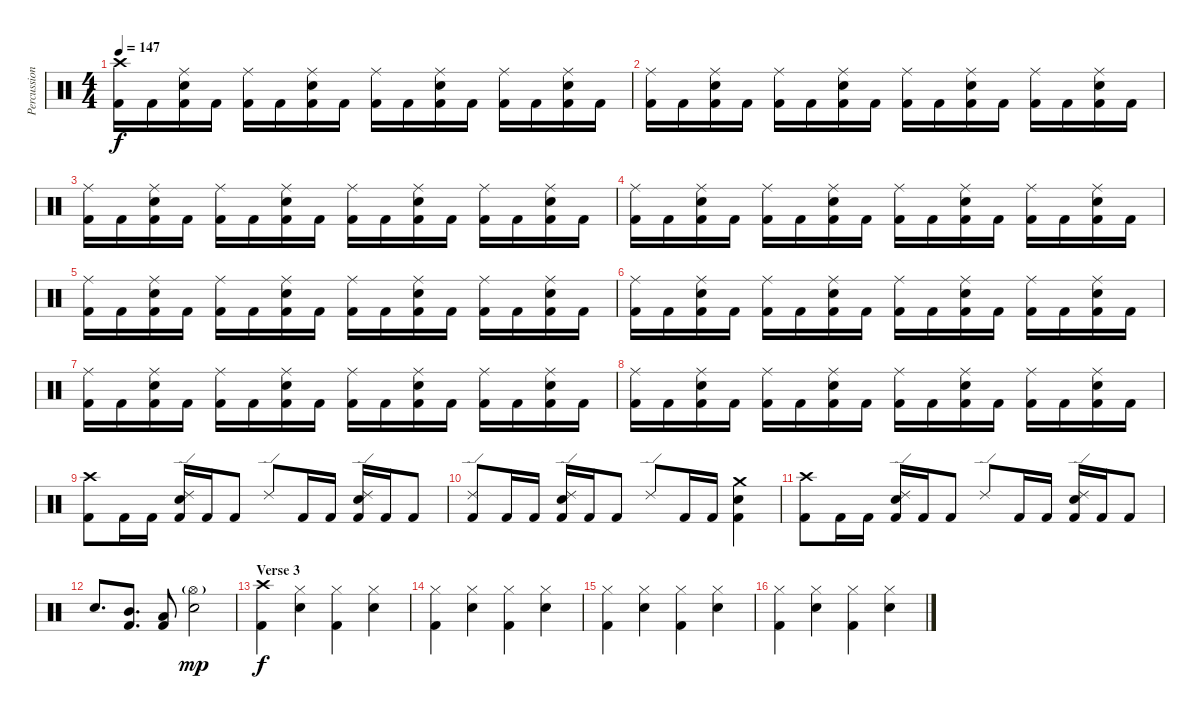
\track ("Percussion" "Percussion") {instrument percussion}
\staff {score}
\articulation defaults
\ts (4 4)
\tempo 147
\clef neutral
\ks c
("Kick (hit) 2" "Crash high (hit)").16{dy f} "Kick (hit) 2".16 ("Kick (hit) 2" "Snare (hit) 2" "Ride (middle)").16 "Kick (hit) 2".16 ("Kick (hit) 2" "Ride (middle)").16 "Kick (hit) 2".16 ("Kick (hit) 2" "Snare (hit) 2" "Ride (middle)").16 "Kick (hit) 2".16 ("Kick (hit) 2" "Ride (middle)").16 "Kick (hit) 2".16 ("Kick (hit) 2" "Snare (hit) 2" "Ride (middle)").16 "Kick (hit) 2".16 ("Kick (hit) 2" "Ride (middle)").16 "Kick (hit) 2".16 ("Kick (hit) 2" "Snare (hit) 2" "Ride (middle)").16 "Kick (hit) 2".16 |
("Kick (hit) 2" "Ride (middle)").16 "Kick (hit) 2".16 ("Kick (hit) 2" "Snare (hit) 2" "Ride (middle)").16 "Kick (hit) 2".16 ("Kick (hit) 2" "Ride (middle)").16 "Kick (hit) 2".16 ("Kick (hit) 2" "Snare (hit) 2" "Ride (middle)").16 "Kick (hit) 2".16 ("Kick (hit) 2" "Ride (middle)").16 "Kick (hit) 2".16 ("Kick (hit) 2" "Snare (hit) 2" "Ride (middle)").16 "Kick (hit) 2".16 ("Kick (hit) 2" "Ride (middle)").16 "Kick (hit) 2".16 ("Kick (hit) 2" "Snare (hit) 2" "Ride (middle)").16 "Kick (hit) 2".16 |
("Kick (hit) 2" "Ride (middle)").16 "Kick (hit) 2".16 ("Kick (hit) 2" "Snare (hit) 2" "Ride (middle)").16 "Kick (hit) 2".16 ("Kick (hit) 2" "Ride (middle)").16 "Kick (hit) 2".16 ("Kick (hit) 2" "Snare (hit) 2" "Ride (middle)").16 "Kick (hit) 2".16 ("Kick (hit) 2" "Ride (middle)").16 "Kick (hit) 2".16 ("Kick (hit) 2" "Snare (hit) 2" "Ride (middle)").16 "Kick (hit) 2".16 ("Kick (hit) 2" "Ride (middle)").16 "Kick (hit) 2".16 ("Kick (hit) 2" "Snare (hit) 2" "Ride (middle)").16 "Kick (hit) 2".16 |
("Kick (hit) 2" "Ride (middle)").16 "Kick (hit) 2".16 ("Kick (hit) 2" "Snare (hit) 2" "Ride (middle)").16 "Kick (hit) 2".16 ("Kick (hit) 2" "Ride (middle)").16 "Kick (hit) 2".16 ("Kick (hit) 2" "Snare (hit) 2" "Ride (middle)").16 "Kick (hit) 2".16 ("Kick (hit) 2" "Ride (middle)").16 "Kick (hit) 2".16 ("Kick (hit) 2" "Snare (hit) 2" "Ride (middle)").16 "Kick (hit) 2".16 ("Kick (hit) 2" "Ride (middle)").16 "Kick (hit) 2".16 ("Kick (hit) 2" "Snare (hit) 2" "Ride (middle)").16 "Kick (hit) 2".16 |
("Kick (hit) 2" "Ride (middle)").16 "Kick (hit) 2".16 ("Kick (hit) 2" "Snare (hit) 2" "Ride (middle)").16 "Kick (hit) 2".16 ("Kick (hit) 2" "Ride (middle)").16 "Kick (hit) 2".16 ("Kick (hit) 2" "Snare (hit) 2" "Ride (middle)").16 "Kick (hit) 2".16 ("Kick (hit) 2" "Ride (middle)").16 "Kick (hit) 2".16 ("Kick (hit) 2" "Snare (hit) 2" "Ride (middle)").16 "Kick (hit) 2".16 ("Kick (hit) 2" "Ride (middle)").16 "Kick (hit) 2".16 ("Kick (hit) 2" "Snare (hit) 2" "Ride (middle)").16 "Kick (hit) 2".16 |
("Kick (hit) 2" "Ride (middle)").16 "Kick (hit) 2".16 ("Kick (hit) 2" "Snare (hit) 2" "Ride (middle)").16 "Kick (hit) 2".16 ("Kick (hit) 2" "Ride (middle)").16 "Kick (hit) 2".16 ("Kick (hit) 2" "Snare (hit) 2" "Ride (middle)").16 "Kick (hit) 2".16 ("Kick (hit) 2" "Ride (middle)").16 "Kick (hit) 2".16 ("Kick (hit) 2" "Snare (hit) 2" "Ride (middle)").16 "Kick (hit) 2".16 ("Kick (hit) 2" "Ride (middle)").16 "Kick (hit) 2".16 ("Kick (hit) 2" "Snare (hit) 2" "Ride (middle)").16 "Kick (hit) 2".16 |
("Kick (hit) 2" "Ride (middle)").16 "Kick (hit) 2".16 ("Kick (hit) 2" "Snare (hit) 2" "Ride (middle)").16 "Kick (hit) 2".16 ("Kick (hit) 2" "Ride (middle)").16 "Kick (hit) 2".16 ("Kick (hit) 2" "Snare (hit) 2" "Ride (middle)").16 "Kick (hit) 2".16 ("Kick (hit) 2" "Ride (middle)").16 "Kick (hit) 2".16 ("Kick (hit) 2" "Snare (hit) 2" "Ride (middle)").16 "Kick (hit) 2".16 ("Kick (hit) 2" "Ride (middle)").16 "Kick (hit) 2".16 ("Kick (hit) 2" "Snare (hit) 2" "Ride (middle)").16 "Kick (hit) 2".16 |
("Kick (hit) 2" "Ride (middle)").16 "Kick (hit) 2".16 ("Kick (hit) 2" "Snare (hit) 2" "Ride (middle)").16 "Kick (hit) 2".16 ("Kick (hit) 2" "Ride (middle)").16 "Kick (hit) 2".16 ("Kick (hit) 2" "Snare (hit) 2" "Ride (middle)").16 "Kick (hit) 2".16 ("Kick (hit) 2" "Ride (middle)").16 "Kick (hit) 2".16 ("Kick (hit) 2" "Snare (hit) 2" "Ride (middle)").16 "Kick (hit) 2".16 ("Kick (hit) 2" "Ride (middle)").16 "Kick (hit) 2".16 ("Kick (hit) 2" "Snare (hit) 2" "Ride (middle)").16 "Kick (hit) 2".16 |
("Kick (hit) 2" "Crash high (hit)").8 "Kick (hit) 2".16 "Kick (hit) 2".16 ("Snare (hit) 2" "Kick (hit) 2" "Ride (edge) 2").16 "Kick (hit) 2".16 "Kick (hit) 2".8 "Ride (edge) 2".8 "Kick (hit) 2".16 "Kick (hit) 2".16 ("Snare (hit) 2" "Kick (hit) 2" "Ride (edge) 2").16 "Kick (hit) 2".16 "Kick (hit) 2".8 |
("Kick (hit) 2" "Ride (edge) 2").8 "Kick (hit) 2".16 "Kick (hit) 2".16 ("Snare (hit) 2" "Kick (hit) 2" "Ride (edge) 2").16 "Kick (hit) 2".16 "Kick (hit) 2".8 "Ride (edge) 2".8 "Kick (hit) 2".16 "Kick (hit) 2".16 ("Snare (hit) 2" "Kick (hit) 2" "Crash medium (hit)").4 |
("Kick (hit) 2" "Crash high (hit)").8 "Kick (hit) 2".16 "Kick (hit) 2".16 ("Snare (hit) 2" "Kick (hit) 2" "Ride (edge) 2").16 "Kick (hit) 2".16 "Kick (hit) 2".8 "Ride (edge) 2".8 "Kick (hit) 2".16 "Kick (hit) 2".16 ("Snare (hit) 2" "Kick (hit) 2" "Ride (edge) 2").16 "Kick (hit) 2".16 "Kick (hit) 2".8 |
"Snare (hit) 2".8{d} ("Mid Tom (hit)" "Kick (hit) 2").8{d} ("Low Tom (hit)" "Kick (hit) 2").8 ("Hi-Hat (open)"{g} "Snare (hit) 2").2{dy mp} |
\section ("" "Verse 3")
("Crash high (hit)" "Kick (hit) 2").4{dy f} ("Hi-Hat (closed)" "Snare (hit) 2").4 ("Hi-Hat (closed)" "Kick (hit) 2").4 ("Hi-Hat (closed)" "Snare (hit) 2").4 |
("Hi-Hat (closed)" "Kick (hit) 2").4 ("Hi-Hat (closed)" "Snare (hit) 2").4 ("Hi-Hat (closed)" "Kick (hit) 2").4 ("Hi-Hat (closed)" "Snare (hit) 2").4 |
("Hi-Hat (closed)" "Kick (hit) 2").4 ("Hi-Hat (closed)" "Snare (hit) 2").4 ("Hi-Hat (closed)" "Kick (hit) 2").4 ("Hi-Hat (closed)" "Snare (hit) 2").4 |
("Hi-Hat (closed)" "Kick (hit) 2").4 ("Hi-Hat (closed)" "Snare (hit) 2").4 ("Hi-Hat (closed)" "Kick (hit) 2").4 ("Hi-Hat (closed)" "Snare (hit) 2").4
